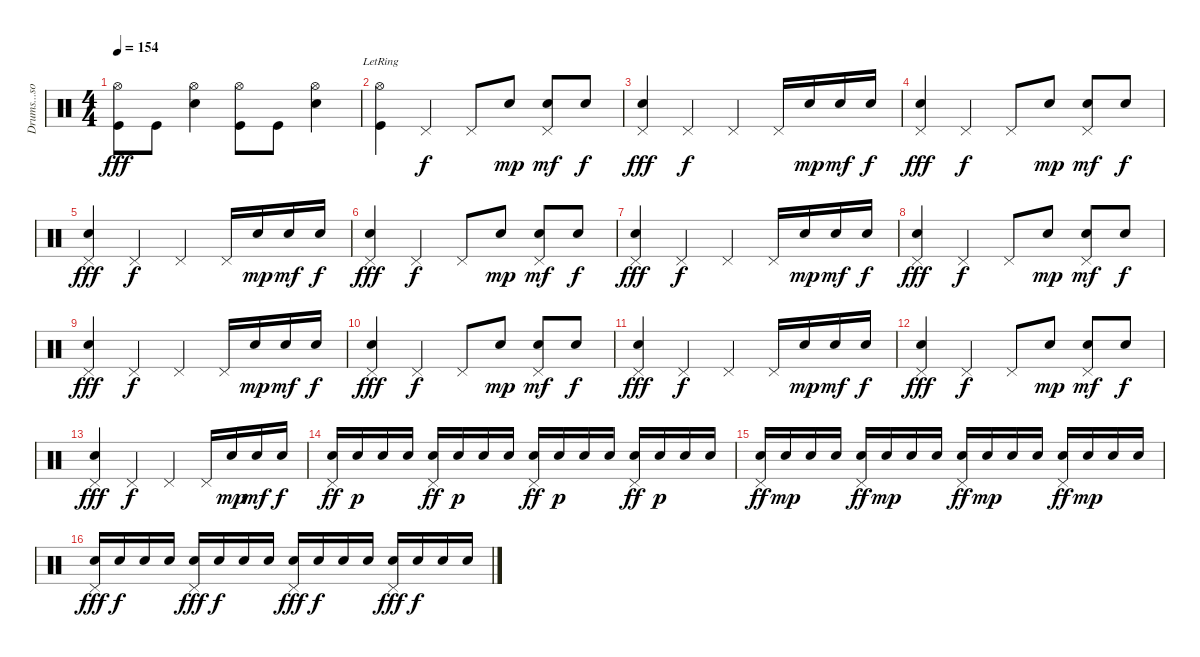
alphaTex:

\track ("Drums...song tabbed by ae" "Drums...so") {instrument percussion}
\staff {score}
\articulation defaults
\ts (4 4)
\tempo 154
\clef neutral
\ks c
("Hi-Hat (open)" "Kick (hit)").8{dy fff} "Kick (hit)".8 ("Hi-Hat (open)" "Snare (hit) 2").4 ("Hi-Hat (open)" "Kick (hit)").8 "Kick (hit)".8 ("Hi-Hat (open)" "Snare (hit) 2").4 |
("Hi-Hat (open)"{lr} "Kick (hit)").4 "Pedal Hi-Hat (hit)".4{dy f} "Pedal Hi-Hat (hit)".8 "Snare (hit) 2".8{dy mp} ("Pedal Hi-Hat (hit)" "Snare (hit) 2").8{dy mf} "Snare (hit) 2".8{dy f} |
("Pedal Hi-Hat (hit)" "Snare (hit) 2").4{dy fff} "Pedal Hi-Hat (hit)".4{dy f} "Pedal Hi-Hat (hit)".4 "Pedal Hi-Hat (hit)".16 "Snare (hit) 2".16{dy mp} "Snare (hit) 2".16{dy mf} "Snare (hit) 2".16{dy f} |
("Pedal Hi-Hat (hit)" "Snare (hit) 2").4{dy fff} "Pedal Hi-Hat (hit)".4{dy f} "Pedal Hi-Hat (hit)".8 "Snare (hit) 2".8{dy mp} ("Pedal Hi-Hat (hit)" "Snare (hit) 2").8{dy mf} "Snare (hit) 2".8{dy f} |
("Pedal Hi-Hat (hit)" "Snare (hit) 2").4{dy fff} "Pedal Hi-Hat (hit)".4{dy f} "Pedal Hi-Hat (hit)".4 "Pedal Hi-Hat (hit)".16 "Snare (hit) 2".16{dy mp} "Snare (hit) 2".16{dy mf} "Snare (hit) 2".16{dy f} |
("Pedal Hi-Hat (hit)" "Snare (hit) 2").4{dy fff} "Pedal Hi-Hat (hit)".4{dy f} "Pedal Hi-Hat (hit)".8 "Snare (hit) 2".8{dy mp} ("Pedal Hi-Hat (hit)" "Snare (hit) 2").8{dy mf} "Snare (hit) 2".8{dy f} |
("Pedal Hi-Hat (hit)" "Snare (hit) 2").4{dy fff} "Pedal Hi-Hat (hit)".4{dy f} "Pedal Hi-Hat (hit)".4 "Pedal Hi-Hat (hit)".16 "Snare (hit) 2".16{dy mp} "Snare (hit) 2".16{dy mf} "Snare (hit) 2".16{dy f} |
("Pedal Hi-Hat (hit)" "Snare (hit) 2").4{dy fff} "Pedal Hi-Hat (hit)".4{dy f} "Pedal Hi-Hat (hit)".8 "Snare (hit) 2".8{dy mp} ("Pedal Hi-Hat (hit)" "Snare (hit) 2").8{dy mf} "Snare (hit) 2".8{dy f} |
("Pedal Hi-Hat (hit)" "Snare (hit) 2").4{dy fff} "Pedal Hi-Hat (hit)".4{dy f} "Pedal Hi-Hat (hit)".4 "Pedal Hi-Hat (hit)".16 "Snare (hit) 2".16{dy mp} "Snare (hit) 2".16{dy mf} "Snare (hit) 2".16{dy f} |
("Pedal Hi-Hat (hit)" "Snare (hit) 2").4{dy fff} "Pedal Hi-Hat (hit)".4{dy f} "Pedal Hi-Hat (hit)".8 "Snare (hit) 2".8{dy mp} ("Pedal Hi-Hat (hit)" "Snare (hit) 2").8{dy mf} "Snare (hit) 2".8{dy f} |
("Pedal Hi-Hat (hit)" "Snare (hit) 2").4{dy fff} "Pedal Hi-Hat (hit)".4{dy f} "Pedal Hi-Hat (hit)".4 "Pedal Hi-Hat (hit)".16 "Snare (hit) 2".16{dy mp} "Snare (hit) 2".16{dy mf} "Snare (hit) 2".16{dy f} |
("Pedal Hi-Hat (hit)" "Snare (hit) 2").4{dy fff} "Pedal Hi-Hat (hit)".4{dy f} "Pedal Hi-Hat (hit)".8 "Snare (hit) 2".8{dy mp} ("Pedal Hi-Hat (hit)" "Snare (hit) 2").8{dy mf} "Snare (hit) 2".8{dy f} |
("Pedal Hi-Hat (hit)" "Snare (hit) 2").4{dy fff} "Pedal Hi-Hat (hit)".4{dy f} "Pedal Hi-Hat (hit)".4 "Pedal Hi-Hat (hit)".16 "Snare (hit) 2".16{dy mp} "Snare (hit) 2".16{dy mf} "Snare (hit) 2".16{dy f} |
("Pedal Hi-Hat (hit)" "Snare (hit) 2").16{dy ff} "Snare (hit) 2".16{dy p} "Snare (hit) 2".16 "Snare (hit) 2".16 ("Pedal Hi-Hat (hit)" "Snare (hit) 2").16{dy ff} "Snare (hit) 2".16{dy p} "Snare (hit) 2".16 "Snare (hit) 2".16 ("Pedal Hi-Hat (hit)" "Snare (hit) 2").16{dy ff} "Snare (hit) 2".16{dy p} "Snare (hit) 2".16 "Snare (hit) 2".16 ("Pedal Hi-Hat (hit)" "Snare (hit) 2").16{dy ff} "Snare (hit) 2".16{dy p} "Snare (hit) 2".16 "Snare (hit) 2".16 |
("Pedal Hi-Hat (hit)" "Snare (hit) 2").16{dy ff} "Snare (hit) 2".16{dy mp} "Snare (hit) 2".16 "Snare (hit) 2".16 ("Pedal Hi-Hat (hit)" "Snare (hit) 2").16{dy ff} "Snare (hit) 2".16{dy mp} "Snare (hit) 2".16 "Snare (hit) 2".16 ("Pedal Hi-Hat (hit)" "Snare (hit) 2").16{dy ff} "Snare (hit) 2".16{dy mp} "Snare (hit) 2".16 "Snare (hit) 2".16 ("Pedal Hi-Hat (hit)" "Snare (hit) 2").16{dy ff} "Snare (hit) 2".16{dy mp} "Snare (hit) 2".16 "Snare (hit) 2".16 |
("Pedal Hi-Hat (hit)" "Snare (hit) 2").16{dy fff} "Snare (hit) 2".16{dy f} "Snare (hit) 2".16 "Snare (hit) 2".16 ("Pedal Hi-Hat (hit)" "Snare (hit) 2").16{dy fff} "Snare (hit) 2".16{dy f} "Snare (hit) 2".16 "Snare (hit) 2".16 ("Pedal Hi-Hat (hit)" "Snare (hit) 2").16{dy fff} "Snare (hit) 2".16{dy f} "Snare (hit) 2".16 "Snare (hit) 2".16 ("Pedal Hi-Hat (hit)" "Snare (hit) 2").16{dy fff} "Snare (hit) 2".16{dy f} "Snare (hit) 2".16 "Snare (hit) 2".16
